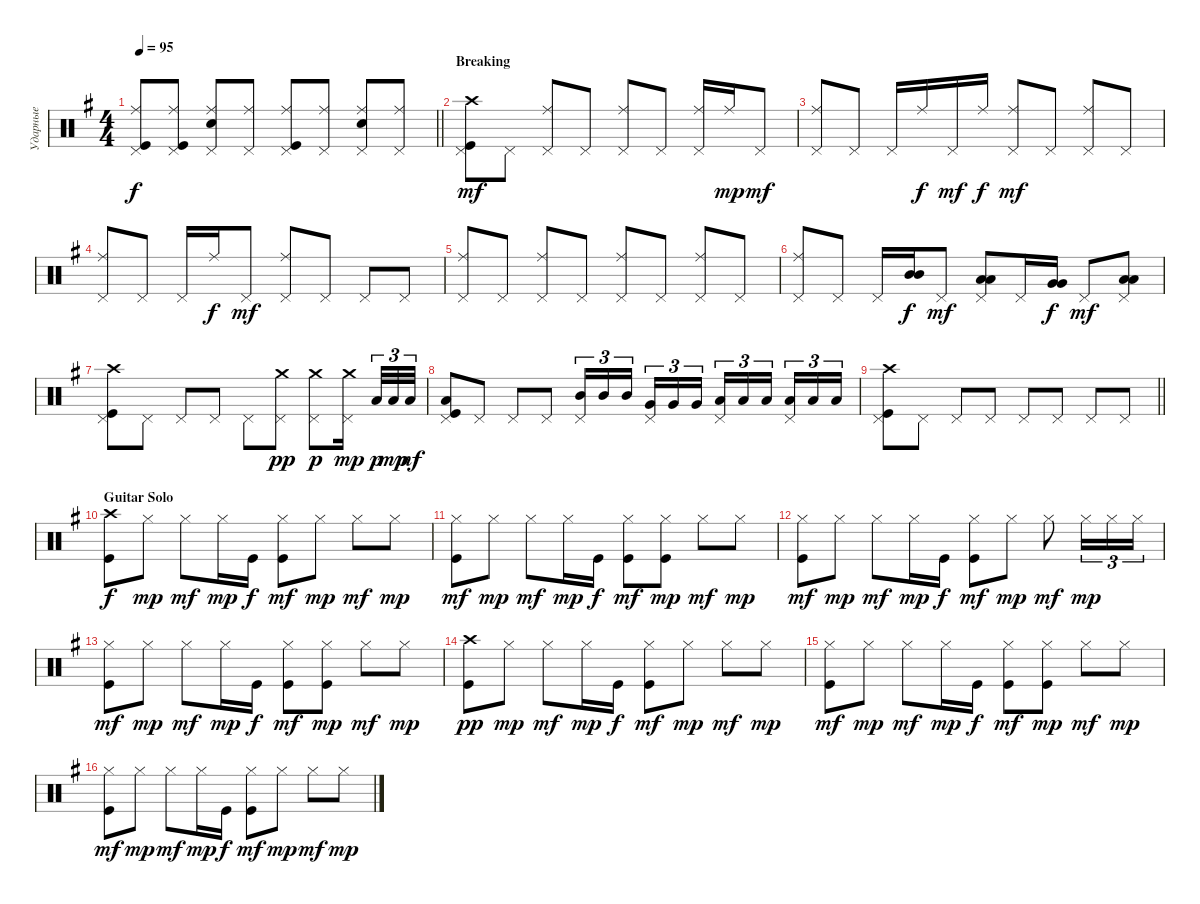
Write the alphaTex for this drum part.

\track ("Ударные" "Ударные") {instrument percussion}
\staff {score}
\articulation defaults
\ts (4 4)
\tempo 95
\clef neutral
\barLineRight lightlight
\ks eminor
("Pedal Hi-Hat (hit)" "Ride (middle)" "Kick (hit)").8{dy f} ("Pedal Hi-Hat (hit)" "Kick (hit)" "Ride (middle)").8 ("Pedal Hi-Hat (hit)" "Snare (hit) 2" "Ride (middle)").8 ("Pedal Hi-Hat (hit)" "Ride (middle)").8 ("Pedal Hi-Hat (hit)" "Kick (hit)" "Ride (middle)").8 ("Pedal Hi-Hat (hit)" "Ride (middle)").8 ("Pedal Hi-Hat (hit)" "Snare (hit) 2" "Ride (middle)").8 ("Pedal Hi-Hat (hit)" "Ride (middle)").8 |
\section ("" "Breaking")
("Pedal Hi-Hat (hit)" "Crash high (hit)" "Kick (hit)").8{dy mf} "Pedal Hi-Hat (hit)".8 ("Pedal Hi-Hat (hit)" "Ride (middle)").8 "Pedal Hi-Hat (hit)".8 ("Pedal Hi-Hat (hit)" "Ride (middle)").8 "Pedal Hi-Hat (hit)".8 ("Pedal Hi-Hat (hit)" "Ride (middle)").16 "Ride (middle)".16{dy mp} "Pedal Hi-Hat (hit)".8{dy mf} |
("Pedal Hi-Hat (hit)" "Ride (middle)").8 "Pedal Hi-Hat (hit)".8 "Pedal Hi-Hat (hit)".16 "Ride (middle)".16{dy f} "Pedal Hi-Hat (hit)".16{dy mf} "Ride (middle)".16{dy f} ("Pedal Hi-Hat (hit)" "Ride (middle)").8{dy mf} "Pedal Hi-Hat (hit)".8 ("Pedal Hi-Hat (hit)" "Ride (middle)").8 "Pedal Hi-Hat (hit)".8 |
("Pedal Hi-Hat (hit)" "Ride (middle)").8 "Pedal Hi-Hat (hit)".8 "Pedal Hi-Hat (hit)".16 "Ride (middle)".16{dy f} "Pedal Hi-Hat (hit)".8{dy mf} ("Pedal Hi-Hat (hit)" "Ride (middle)").8 "Pedal Hi-Hat (hit)".8 "Pedal Hi-Hat (hit)".8 "Pedal Hi-Hat (hit)".8 |
("Pedal Hi-Hat (hit)" "Ride (middle)").8 "Pedal Hi-Hat (hit)".8 ("Pedal Hi-Hat (hit)" "Ride (middle)").8 "Pedal Hi-Hat (hit)".8 ("Pedal Hi-Hat (hit)" "Ride (middle)").8 "Pedal Hi-Hat (hit)".8 ("Pedal Hi-Hat (hit)" "Ride (middle)").8 "Pedal Hi-Hat (hit)".8 |
("Pedal Hi-Hat (hit)" "Ride (middle)").8 "Pedal Hi-Hat (hit)".8 "Pedal Hi-Hat (hit)".16 ("Mid Tom (hit)" "Mid Tom (hit)").16{bd 480 dy f} "Pedal Hi-Hat (hit)".8{dy mf} ("Pedal Hi-Hat (hit)" "Low Tom (hit)" "Low Tom (hit)").8{bd 480} "Pedal Hi-Hat (hit)".16 ("Very Low Tom (hit)" "Very Low Tom (hit)").16{bd 480 dy f} "Pedal Hi-Hat (hit)".8{dy mf} ("Pedal Hi-Hat (hit)" "Low Floor Tom (hit)" "Low Floor Tom (hit)").8{bd 480} |
("Pedal Hi-Hat (hit)" "Crash high (hit)" "Kick (hit)").8 "Pedal Hi-Hat (hit)".8 "Pedal Hi-Hat (hit)".8 "Pedal Hi-Hat (hit)".8 "Pedal Hi-Hat (hit)".8 ("Pedal Hi-Hat (hit)" "Crash medium (hit)").8{dy pp} ("Pedal Hi-Hat (hit)" "Crash medium (hit)").8{dy p} ("Pedal Hi-Hat (hit)" "Crash medium (hit)").16{dy mp beam splitsecondary} "Low Tom (hit)".32{tu (3 2) dy p} "Low Tom (hit)".32{tu (3 2) dy mp} "Low Tom (hit)".32{tu (3 2) dy mf} |
("Pedal Hi-Hat (hit)" "Low Tom (hit)" "Kick (hit)").8 "Pedal Hi-Hat (hit)".8 "Pedal Hi-Hat (hit)".8 "Pedal Hi-Hat (hit)".8 ("Pedal Hi-Hat (hit)" "Mid Tom (hit)").16{tu (3 2)} "Mid Tom (hit)".16{tu (3 2)} "Mid Tom (hit)".16{tu (3 2) beam splitsecondary} ("Very Low Tom (hit)" "Pedal Hi-Hat (hit)").16{tu (3 2)} "Very Low Tom (hit)".16{tu (3 2)} "Very Low Tom (hit)".16{tu (3 2)} ("Low Tom (hit)" "Pedal Hi-Hat (hit)").16{tu (3 2)} "Low Tom (hit)".16{tu (3 2)} "Low Tom (hit)".16{tu (3 2) beam splitsecondary} ("Low Floor Tom (hit)" "Pedal Hi-Hat (hit)").16{tu (3 2)} "Low Floor Tom (hit)".16{tu (3 2)} "Low Floor Tom (hit)".16{tu (3 2)} |
\barLineRight lightlight
("Pedal Hi-Hat (hit)" "Crash high (hit)" "Kick (hit)").8 "Pedal Hi-Hat (hit)".8 "Pedal Hi-Hat (hit)".8 "Pedal Hi-Hat (hit)".8 "Pedal Hi-Hat (hit)".8 "Pedal Hi-Hat (hit)".8 "Pedal Hi-Hat (hit)".8 "Pedal Hi-Hat (hit)".8 |
\section ("" "Guitar Solo ")
("Crash high (hit)" "Kick (hit)").8{dy f} "Hi-Hat (closed)".8{dy mp} "Hi-Hat (closed)".8{dy mf} "Hi-Hat (closed)".16{dy mp} "Kick (hit)".16{dy f} ("Hi-Hat (closed)" "Kick (hit)").8{dy mf} "Hi-Hat (closed)".8{dy mp} "Hi-Hat (closed)".8{dy mf} "Hi-Hat (closed)".8{dy mp} |
("Hi-Hat (closed)" "Kick (hit)").8{dy mf} "Hi-Hat (closed)".8{dy mp} "Hi-Hat (closed)".8{dy mf} "Hi-Hat (closed)".16{dy mp} "Kick (hit)".16{dy f} ("Hi-Hat (closed)" "Kick (hit)").8{dy mf} ("Hi-Hat (closed)" "Kick (hit)").8{dy mp} "Hi-Hat (closed)".8{dy mf} "Hi-Hat (closed)".8{dy mp} |
("Hi-Hat (closed)" "Kick (hit)").8{dy mf} "Hi-Hat (closed)".8{dy mp} "Hi-Hat (closed)".8{dy mf} "Hi-Hat (closed)".16{dy mp} "Kick (hit)".16{dy f} ("Hi-Hat (closed)" "Kick (hit)").8{dy mf} "Hi-Hat (closed)".8{dy mp} "Hi-Hat (closed)".8{dy mf} "Hi-Hat (closed)".16{tu (3 2) dy mp} "Hi-Hat (closed)".16{tu (3 2)} "Hi-Hat (closed)".16{tu (3 2)} |
("Hi-Hat (closed)" "Kick (hit)").8{dy mf} "Hi-Hat (closed)".8{dy mp} "Hi-Hat (closed)".8{dy mf} "Hi-Hat (closed)".16{dy mp} "Kick (hit)".16{dy f} ("Hi-Hat (closed)" "Kick (hit)").8{dy mf} ("Hi-Hat (closed)" "Kick (hit)").8{dy mp} "Hi-Hat (closed)".8{dy mf} "Hi-Hat (closed)".8{dy mp} |
("Kick (hit)" "Crash high (hit)").8{dy pp} "Hi-Hat (closed)".8{dy mp} "Hi-Hat (closed)".8{dy mf} "Hi-Hat (closed)".16{dy mp} "Kick (hit)".16{dy f} ("Hi-Hat (closed)" "Kick (hit)").8{dy mf} "Hi-Hat (closed)".8{dy mp} "Hi-Hat (closed)".8{dy mf} "Hi-Hat (closed)".8{dy mp} |
("Hi-Hat (closed)" "Kick (hit)").8{dy mf} "Hi-Hat (closed)".8{dy mp} "Hi-Hat (closed)".8{dy mf} "Hi-Hat (closed)".16{dy mp} "Kick (hit)".16{dy f} ("Hi-Hat (closed)" "Kick (hit)").8{dy mf} ("Hi-Hat (closed)" "Kick (hit)").8{dy mp} "Hi-Hat (closed)".8{dy mf} "Hi-Hat (closed)".8{dy mp} |
("Hi-Hat (closed)" "Kick (hit)").8{dy mf} "Hi-Hat (closed)".8{dy mp} "Hi-Hat (closed)".8{dy mf} "Hi-Hat (closed)".16{dy mp} "Kick (hit)".16{dy f} ("Hi-Hat (closed)" "Kick (hit)").8{dy mf} "Hi-Hat (closed)".8{dy mp} "Hi-Hat (closed)".8{dy mf} "Hi-Hat (closed)".8{dy mp}
